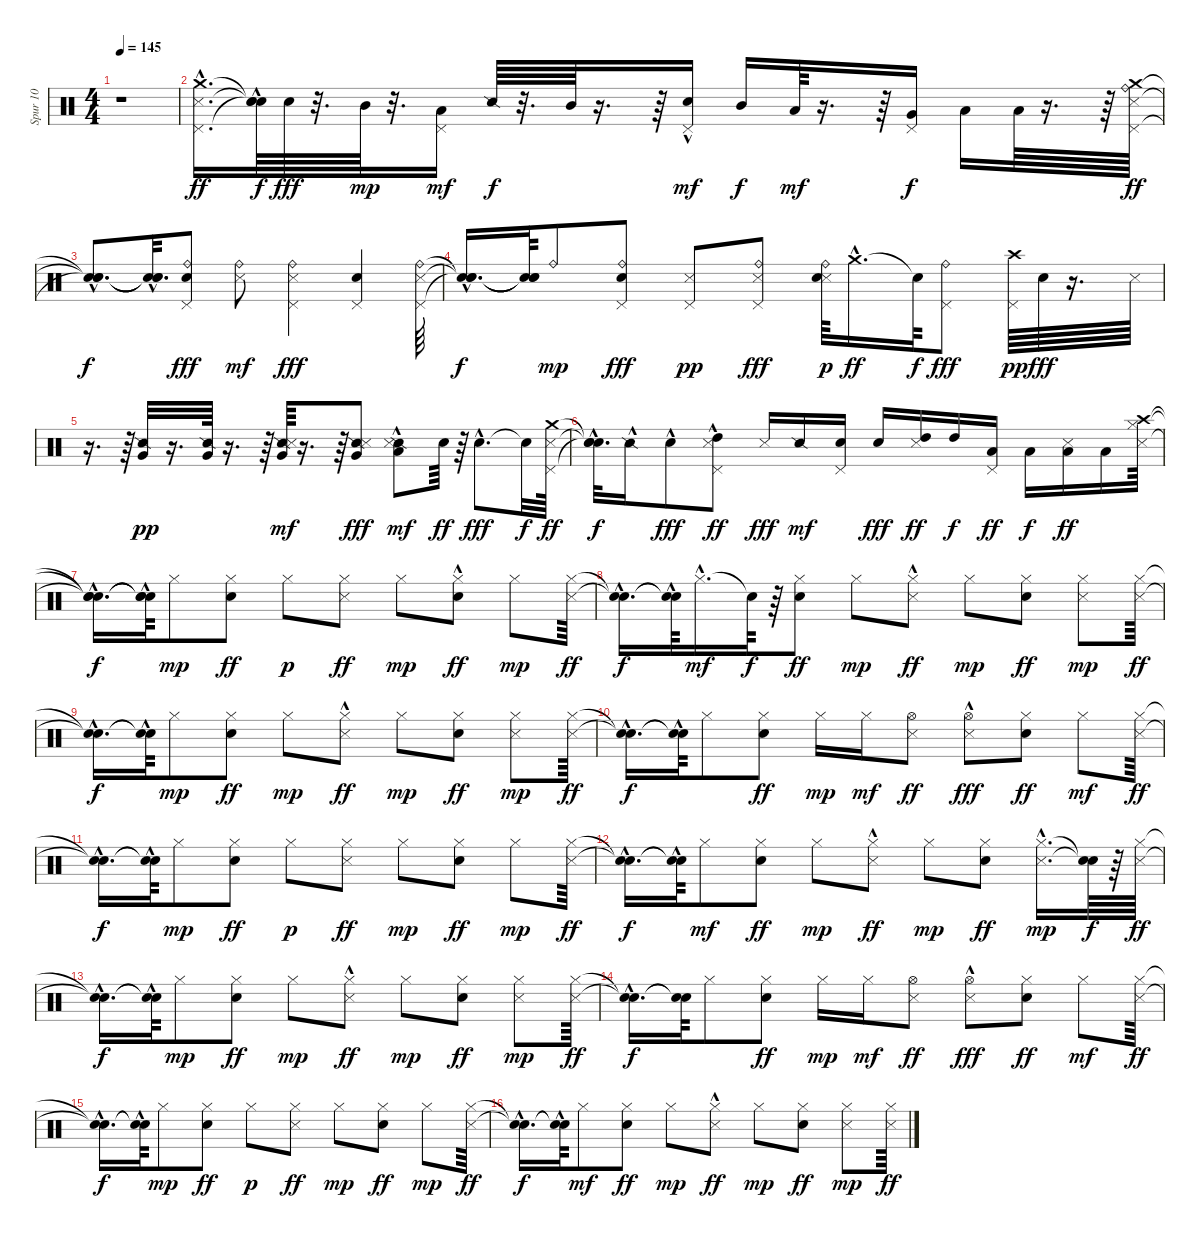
\track ("Spur 10" "Spur 10") {instrument percussion}
\staff {score}
\articulation defaults
\ts (4 4)
\tempo 145
\clef neutral
\ks c
r.1{dy ff} |
("Metronome (hit)"{hac} "Pedal Hi-Hat (hit)"{hac} "Crash medium (hit)"{hac}).16{d} ("Snare (hit)"{hac t} "Snare (hit)"{t} "Snare (hit)"{t}).64{dy f} "Electric Snare (hit)".64{dy fff} r.32{d} "Mid Tom (hit)".64{dy mp} r.32{d} ("Pedal Hi-Hat (hit)" "Low Tom (hit)").16{dy mf} "Snare (side stick) 2".64{dy f} r.32{d} "Mid Tom (hit)".64 r.16{d} r.64 ("Electric Snare (hit)"{hac} "Pedal Hi-Hat (hit)").16{dy mf} "Mid Tom (hit)".16{dy f} "Low Tom (hit)".64{dy mf} r.16{d} r.64 ("Very Low Tom (hit)" "Pedal Hi-Hat (hit)").16{dy f} "Low Tom (hit)".16 "Low Floor Tom (hit)".64 r.16{d} r.64 ("Metronome (hit)" "Pedal Hi-Hat (hit)" "Ride (bell)" "Crash medium (hit)").64{dy ff} |
("Snare (hit)"{hac t} "Snare (hit)"{hac t} "Snare (hit)"{hac t}).8{d dy f} ("Snare (hit)"{t} "Snare (hit)"{hac t} "Snare (hit)"{hac t}).32{d} ("Electric Snare (hit)" "Pedal Hi-Hat (hit)" "Ride (bell)").8{dy fff} ("Metronome (hit)" "Ride (bell)").8{dy mf} ("Metronome (hit)" "Pedal Hi-Hat (hit)" "Ride (bell)").4{dy fff} ("Electric Snare (hit)" "Pedal Hi-Hat (hit)").4 ("Metronome (hit)" "Pedal Hi-Hat (hit)" "Ride (bell)").64 |
("Snare (hit)"{hac t} "Snare (hit)"{hac t} "Snare (hit)"{hac t}).16{d dy f} ("Snare (hit)"{t} "Snare (hit)"{t} "Snare (hit)"{t}).64 "Ride (bell)".8{dy mp} ("Electric Snare (hit)" "Pedal Hi-Hat (hit)" "Ride (bell)").8{dy fff} ("Metronome (hit)" "Pedal Hi-Hat (hit)").8{dy pp} ("Metronome (hit)" "Pedal Hi-Hat (hit)" "Ride (bell)").8{dy fff} ("Metronome (hit)" "Electric Snare (hit)" "Ride (bell)").64{dy p} "Crash medium (hit)"{hac}.16{d dy ff} "Snare (hit)"{t}.64{dy f} ("Pedal Hi-Hat (hit)" "Ride (bell)").8{dy fff} ("Pedal Hi-Hat (hit)" "Crash high (hit)").64{dy pp} "Electric Snare (hit)".64{dy fff} r.16{d} "Metronome (hit)".64 |
r.16{d} r.64 ("Snare (side stick) 2" "Very Low Tom (hit)").32{dy pp} r.16{d} ("Snare (side stick) 2" "Very Low Tom (hit)").64 r.16{d} r.64 ("Snare (side stick) 2" "Metronome (hit)" "Very Low Tom (hit)").64{dy mf} r.16{d} r.64 ("Snare (side stick) 2" "Metronome (hit)" "Very Low Tom (hit)").8{dy fff} ("Snare (side stick) 2"{hac} "Metronome (hit)"{hac} "Low Floor Tom (hit)").8{dy mf} "Electric Snare (hit)".64{dy ff} r.64 "Electric Snare (hit)"{hac}.8{d dy fff} "Snare (hit)"{t}.32{dy f} ("Metronome (hit)" "Pedal Hi-Hat (hit)" "Crash medium (hit)").64{dy ff} |
("Snare (hit)"{hac t} "Snare (hit)"{hac t} "Snare (hit)"{hac t}).32{d dy f} "Snare (side stick) 2"{hac}.16 "Electric Snare (hit)"{hac}.8{dy fff} ("Metronome (hit)" "Pedal Hi-Hat (hit)" "High Tom (hit)"{hac}).8{dy ff} "Metronome (hit)".16{dy fff} "Snare (side stick) 2".16{dy mf} ("Electric Snare (hit)" "Pedal Hi-Hat (hit)").16 "Electric Snare (hit)".16{dy fff} ("Metronome (hit)" "High Tom (hit)").16{dy ff} "High Tom (hit)".16{dy f} ("Pedal Hi-Hat (hit)" "Low Tom (hit)").16{dy ff} "Low Tom (hit)".16{dy f} ("Metronome (hit)" "Low Floor Tom (hit)").16{dy ff} "Low Floor Tom (hit)".16 ("Crash high (hit)" "Metronome (hit)" "Hi-Hat (closed)").64 |
("Snare (hit)"{hac t} "Snare (hit)"{hac t} "Snare (hit)"{hac t}).16{d dy f} ("Snare (hit)"{t} "Snare (hit)"{hac t} "Snare (hit)"{t}).64 "Hi-Hat (closed)".8{dy mp} ("Electric Snare (hit)" "Hi-Hat (closed)").8{dy ff} "Hi-Hat (closed)".8{dy p} ("Metronome (hit)" "Hi-Hat (closed)").8{dy ff} "Hi-Hat (closed)".8{dy mp} ("Electric Snare (hit)"{hac} "Hi-Hat (closed)").8{dy ff} "Hi-Hat (closed)".8{dy mp} ("Metronome (hit)" "Hi-Hat (closed)").64{dy ff} |
("Snare (hit)"{hac t} "Snare (hit)"{hac t}).16{d dy f} ("Snare (hit)"{hac t} "Snare (hit)"{t}).64 "Hi-Hat (closed)"{hac}.16{d dy mf} "Snare (hit)"{t}.64{dy f} r.64 ("Electric Snare (hit)" "Hi-Hat (closed)").8{dy ff} "Hi-Hat (closed)".8{dy mp} ("Metronome (hit)"{hac} "Hi-Hat (closed)").8{dy ff} "Hi-Hat (closed)".8{dy mp} ("Electric Snare (hit)" "Hi-Hat (closed)").8{dy ff} ("Metronome (hit)" "Hi-Hat (closed)").8{dy mp} ("Metronome (hit)" "Hi-Hat (closed)").64{dy ff} |
("Snare (hit)"{hac t} "Snare (hit)"{hac t}).16{d dy f} ("Snare (hit)"{hac t} "Snare (hit)"{t}).64 "Hi-Hat (closed)".8{dy mp} ("Electric Snare (hit)" "Hi-Hat (closed)").8{dy ff} "Hi-Hat (closed)".8{dy mp} ("Metronome (hit)"{hac} "Hi-Hat (closed)").8{dy ff} "Hi-Hat (closed)".8{dy mp} ("Electric Snare (hit)" "Hi-Hat (closed)").8{dy ff} ("Metronome (hit)" "Hi-Hat (closed)").8{dy mp} ("Metronome (hit)" "Hi-Hat (closed)").64{dy ff} |
("Snare (hit)"{hac t} "Snare (hit)"{hac t}).16{d dy f} ("Snare (hit)"{hac t} "Snare (hit)"{t}).64 "Hi-Hat (closed)".8 ("Electric Snare (hit)" "Hi-Hat (closed)").8{dy ff} "Hi-Hat (closed)".16{dy mp} "Hi-Hat (closed)".16{dy mf} ("Metronome (hit)" "Hi-Hat (open)").8{dy ff} ("Metronome (hit)"{hac} "Hi-Hat (open)").8{dy fff} ("Electric Snare (hit)" "Hi-Hat (closed)").8{dy ff} "Hi-Hat (closed)".8{dy mf} ("Metronome (hit)" "Hi-Hat (closed)").64{dy ff} |
("Snare (hit)"{hac t} "Snare (hit)"{hac t}).16{d dy f} ("Snare (hit)"{hac t} "Snare (hit)"{t}).64 "Hi-Hat (closed)".8{dy mp} ("Electric Snare (hit)" "Hi-Hat (closed)").8{dy ff} "Hi-Hat (closed)".8{dy p} ("Metronome (hit)" "Hi-Hat (closed)").8{dy ff} "Hi-Hat (closed)".8{dy mp} ("Electric Snare (hit)" "Hi-Hat (closed)").8{dy ff} "Hi-Hat (closed)".8{dy mp} ("Metronome (hit)" "Hi-Hat (closed)").64{dy ff} |
("Snare (hit)"{hac t} "Snare (hit)"{hac t}).16{d dy f} ("Snare (hit)"{hac t} "Snare (hit)"{t}).64 "Hi-Hat (closed)".8{dy mf} ("Electric Snare (hit)" "Hi-Hat (closed)").8{dy ff} "Hi-Hat (closed)".8{dy mp} ("Metronome (hit)"{hac} "Hi-Hat (closed)").8{dy ff} "Hi-Hat (closed)".8{dy mp} ("Electric Snare (hit)" "Hi-Hat (closed)").8{dy ff} ("Metronome (hit)"{hac} "Hi-Hat (closed)"{hac}).16{d dy mp} ("Snare (hit)"{t} "Snare (hit)"{t}).64{dy f} r.64 ("Metronome (hit)" "Hi-Hat (closed)").64{dy ff} |
("Snare (hit)"{hac t} "Snare (hit)"{hac t}).16{d dy f} ("Snare (hit)"{hac t} "Snare (hit)"{t}).64 "Hi-Hat (closed)".8{dy mp} ("Electric Snare (hit)" "Hi-Hat (closed)").8{dy ff} "Hi-Hat (closed)".8{dy mp} ("Metronome (hit)"{hac} "Hi-Hat (closed)").8{dy ff} "Hi-Hat (closed)".8{dy mp} ("Electric Snare (hit)" "Hi-Hat (closed)").8{dy ff} ("Metronome (hit)" "Hi-Hat (closed)").8{dy mp} ("Metronome (hit)" "Hi-Hat (closed)").64{dy ff} |
("Snare (hit)"{hac t} "Snare (hit)"{hac t}).16{d dy f} ("Snare (hit)"{t} "Snare (hit)"{t}).64 "Hi-Hat (closed)".8 ("Electric Snare (hit)" "Hi-Hat (closed)").8{dy ff} "Hi-Hat (closed)".16{dy mp} "Hi-Hat (closed)".16{dy mf} ("Metronome (hit)" "Hi-Hat (open)").8{dy ff} ("Metronome (hit)"{hac} "Hi-Hat (open)").8{dy fff} ("Electric Snare (hit)" "Hi-Hat (closed)").8{dy ff} "Hi-Hat (closed)".8{dy mf} ("Metronome (hit)" "Hi-Hat (closed)").64{dy ff} |
("Snare (hit)"{hac t} "Snare (hit)"{hac t}).16{d dy f} ("Snare (hit)"{hac t} "Snare (hit)"{t}).64 "Hi-Hat (closed)".8{dy mp} ("Electric Snare (hit)" "Hi-Hat (closed)").8{dy ff} "Hi-Hat (closed)".8{dy p} ("Metronome (hit)" "Hi-Hat (closed)").8{dy ff} "Hi-Hat (closed)".8{dy mp} ("Electric Snare (hit)" "Hi-Hat (closed)").8{dy ff} "Hi-Hat (closed)".8{dy mp} ("Metronome (hit)" "Hi-Hat (closed)").64{dy ff} |
("Snare (hit)"{hac t} "Snare (hit)"{hac t}).16{d dy f} ("Snare (hit)"{hac t} "Snare (hit)"{t}).64 "Hi-Hat (closed)".8{dy mf} ("Electric Snare (hit)" "Hi-Hat (closed)").8{dy ff} "Hi-Hat (closed)".8{dy mp} ("Metronome (hit)"{hac} "Hi-Hat (closed)").8{dy ff} "Hi-Hat (closed)".8{dy mp} ("Electric Snare (hit)" "Hi-Hat (closed)").8{dy ff} ("Metronome (hit)" "Hi-Hat (closed)").8{dy mp} ("Metronome (hit)" "Hi-Hat (closed)").64{dy ff}
